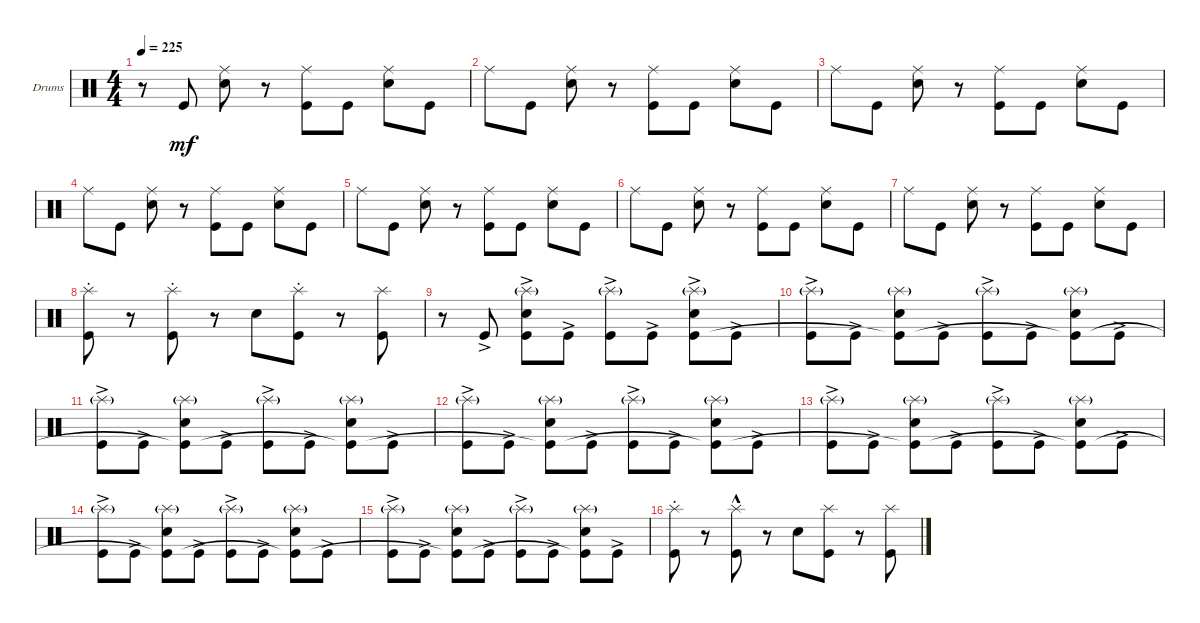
\bracketExtendMode groupsimilarinstruments
\firstSystemTrackNameOrientation horizontal
\otherSystemsTrackNameOrientation horizontal
\track ("Drumkit" "Drums") {instrument percussion}
\staff {score}
\articulation defaults
\ts (4 4)
\tempo 225
\clef neutral
\ks c
r.8{dy mf} "Kick (hit)".8 ("Snare (hit) 2" "Ride (middle)").8 r.8 ("Kick (hit)" "Ride (middle)").8 "Kick (hit)".8 ("Snare (hit) 2" "Ride (middle)").8 "Kick (hit)".8 |
"Ride (middle)".8 "Kick (hit)".8 ("Snare (hit) 2" "Ride (middle)").8 r.8 ("Kick (hit)" "Ride (middle)").8 "Kick (hit)".8 ("Snare (hit) 2" "Ride (middle)").8 "Kick (hit)".8 |
"Ride (middle)".8 "Kick (hit)".8 ("Snare (hit) 2" "Ride (middle)").8 r.8 ("Kick (hit)" "Ride (middle)").8 "Kick (hit)".8 ("Snare (hit) 2" "Ride (middle)").8 "Kick (hit)".8 |
"Ride (middle)".8 "Kick (hit)".8 ("Snare (hit) 2" "Ride (middle)").8 r.8 ("Kick (hit)" "Ride (middle)").8 "Kick (hit)".8 ("Snare (hit) 2" "Ride (middle)").8 "Kick (hit)".8 |
"Ride (middle)".8 "Kick (hit)".8 ("Snare (hit) 2" "Ride (middle)").8 r.8 ("Kick (hit)" "Ride (middle)").8 "Kick (hit)".8 ("Snare (hit) 2" "Ride (middle)").8 "Kick (hit)".8 |
"Ride (middle)".8 "Kick (hit)".8 ("Snare (hit) 2" "Ride (middle)").8 r.8 ("Kick (hit)" "Ride (middle)").8 "Kick (hit)".8 ("Snare (hit) 2" "Ride (middle)").8 "Kick (hit)".8 |
"Ride (middle)".8 "Kick (hit)".8 ("Snare (hit) 2" "Ride (middle)").8 r.8 ("Kick (hit)" "Ride (middle)").8 "Kick (hit)".8 ("Snare (hit) 2" "Ride (middle)").8 "Kick (hit)".8 |
("Kick (hit)" "Splash (hit)"{st}).8 r.8 ("Kick (hit)" "Splash (hit)"{st}).8 r.8 "Snare (hit) 2".8 ("Kick (hit)" "Splash (hit)"{st}).8 r.8 ("Kick (hit)" "Splash (hit)").8 |
r.8 "Kick (hit)"{ac}.8 ("Snare (hit) 2" "Splash (hit)"{g} "Kick (hit)"{ac}).8 "Kick (hit)"{ac}.8 ("Kick (hit)"{ac} "Splash (hit)"{g}).8 "Kick (hit)"{ac}.8 ("Snare (hit) 2" "Splash (hit)"{g} "Kick (hit)"{ac}).8 "Kick (hit)"{ac}.8 |
("Kick (hit)"{ac} "Splash (hit)"{g}).8 "Kick (hit)"{ac}.8 ("Snare (hit) 2" "Splash (hit)"{g} "Kick (hit)"{t}).8 "Kick (hit)"{ac}.8 ("Kick (hit)"{ac} "Splash (hit)"{g}).8 "Kick (hit)"{ac}.8 ("Snare (hit) 2" "Splash (hit)"{g} "Kick (hit)"{t}).8 "Kick (hit)"{ac}.8 |
("Kick (hit)"{ac} "Splash (hit)"{g}).8 "Kick (hit)"{ac}.8 ("Snare (hit) 2" "Splash (hit)"{g} "Kick (hit)"{t}).8 "Kick (hit)"{ac}.8 ("Kick (hit)"{ac} "Splash (hit)"{g}).8 "Kick (hit)"{ac}.8 ("Snare (hit) 2" "Splash (hit)"{g} "Kick (hit)"{t}).8 "Kick (hit)"{ac}.8 |
("Kick (hit)"{ac} "Splash (hit)"{g}).8 "Kick (hit)"{ac}.8 ("Snare (hit) 2" "Splash (hit)"{g} "Kick (hit)"{t}).8 "Kick (hit)"{ac}.8 ("Kick (hit)"{ac} "Splash (hit)"{g}).8 "Kick (hit)"{ac}.8 ("Snare (hit) 2" "Splash (hit)"{g} "Kick (hit)"{t}).8 "Kick (hit)"{ac}.8 |
("Kick (hit)"{ac} "Splash (hit)"{g}).8 "Kick (hit)"{ac}.8 ("Snare (hit) 2" "Splash (hit)"{g} "Kick (hit)"{t}).8 "Kick (hit)"{ac}.8 ("Kick (hit)"{ac} "Splash (hit)"{g}).8 "Kick (hit)"{ac}.8 ("Snare (hit) 2" "Splash (hit)"{g} "Kick (hit)"{t}).8 "Kick (hit)"{ac}.8 |
("Kick (hit)"{ac} "Splash (hit)"{g}).8 "Kick (hit)"{ac}.8 ("Snare (hit) 2" "Splash (hit)"{g} "Kick (hit)"{t}).8 "Kick (hit)"{ac}.8 ("Kick (hit)"{ac} "Splash (hit)"{g}).8 "Kick (hit)"{ac}.8 ("Snare (hit) 2" "Splash (hit)"{g} "Kick (hit)"{t}).8 "Kick (hit)"{ac}.8 |
("Kick (hit)"{ac} "Splash (hit)"{g}).8 "Kick (hit)"{ac}.8 ("Snare (hit) 2" "Splash (hit)"{g} "Kick (hit)"{t}).8 "Kick (hit)"{ac}.8 ("Kick (hit)"{ac} "Splash (hit)"{g}).8 "Kick (hit)"{ac}.8 ("Snare (hit) 2" "Splash (hit)"{g} "Kick (hit)"{t}).8 "Kick (hit)"{ac}.8 |
("Kick (hit)" "Splash (hit)"{st}).8 r.8 ("Kick (hit)" "Splash (hit)"{hac}).8 r.8 "Snare (hit) 2".8 ("Kick (hit)" "Splash (hit)").8 r.8 ("Kick (hit)" "Splash (hit)").8
